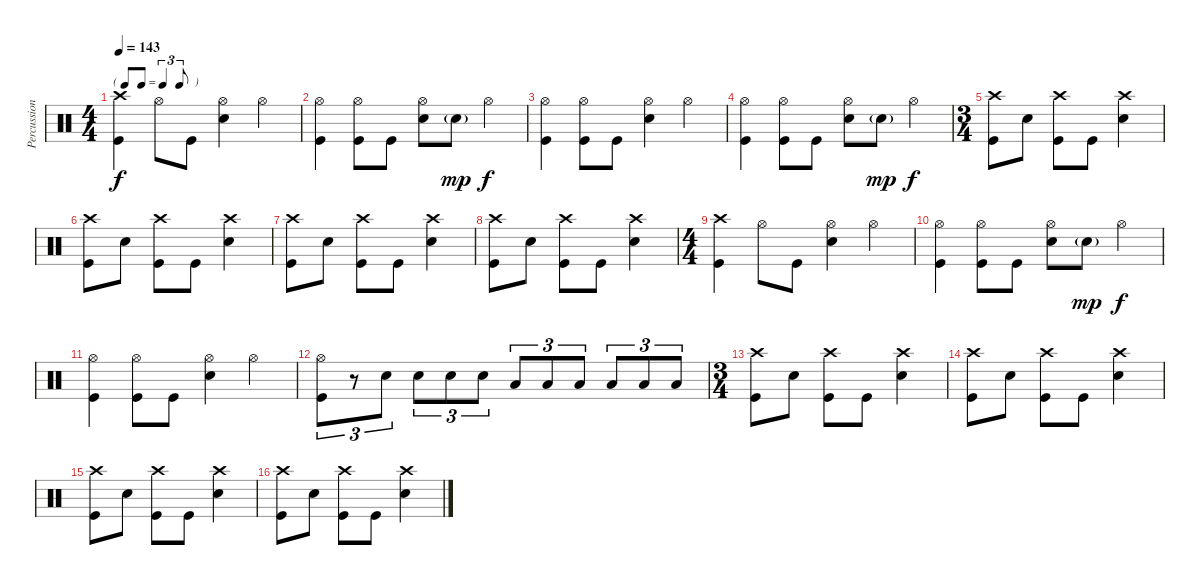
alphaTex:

\track ("Percussion" "Percussion") {instrument percussion}
\staff {score}
\articulation defaults
\ts (4 4)
\tf triplet8th
\tempo 143
\clef neutral
\ks c
("Crash high (hit)" "Kick (hit)").4{dy f} "Hi-Hat (open)".8 "Kick (hit)".8 ("Hi-Hat (open)" "Electric Snare (hit)").4 "Hi-Hat (open)".4 |
("Hi-Hat (open)" "Kick (hit)").4 ("Hi-Hat (open)" "Kick (hit)").8 "Kick (hit)".8 ("Hi-Hat (open)" "Electric Snare (hit)").8 "Electric Snare (hit)"{g}.8{dy mp} "Hi-Hat (open)".4{dy f} |
("Hi-Hat (open)" "Kick (hit)").4 ("Hi-Hat (open)" "Kick (hit)").8 "Kick (hit)".8 ("Hi-Hat (open)" "Electric Snare (hit)").4 "Hi-Hat (open)".4 |
("Hi-Hat (open)" "Kick (hit)").4 ("Hi-Hat (open)" "Kick (hit)").8 "Kick (hit)".8 ("Hi-Hat (open)" "Electric Snare (hit)").8 "Electric Snare (hit)"{g}.8{dy mp} "Hi-Hat (open)".4{dy f} |
\ts (3 4)
("Crash high (hit)" "Kick (hit)").8 "Electric Snare (hit)".8 ("Crash high (hit)" "Kick (hit)").8 "Kick (hit)".8 ("Crash high (hit)" "Electric Snare (hit)").4 |
("Crash high (hit)" "Kick (hit)").8 "Electric Snare (hit)".8 ("Crash high (hit)" "Kick (hit)").8 "Kick (hit)".8 ("Crash high (hit)" "Electric Snare (hit)").4 |
("Crash high (hit)" "Kick (hit)").8 "Electric Snare (hit)".8 ("Crash high (hit)" "Kick (hit)").8 "Kick (hit)".8 ("Crash high (hit)" "Electric Snare (hit)").4 |
("Crash high (hit)" "Kick (hit)").8 "Electric Snare (hit)".8 ("Crash high (hit)" "Kick (hit)").8 "Kick (hit)".8 ("Crash high (hit)" "Electric Snare (hit)").4 |
\ts (4 4)
("Crash high (hit)" "Kick (hit)").4 "Hi-Hat (open)".8 "Kick (hit)".8 ("Hi-Hat (open)" "Electric Snare (hit)").4 "Hi-Hat (open)".4 |
("Hi-Hat (open)" "Kick (hit)").4 ("Hi-Hat (open)" "Kick (hit)").8 "Kick (hit)".8 ("Hi-Hat (open)" "Electric Snare (hit)").8 "Electric Snare (hit)"{g}.8{dy mp} "Hi-Hat (open)".4{dy f} |
("Hi-Hat (open)" "Kick (hit)").4 ("Hi-Hat (open)" "Kick (hit)").8 "Kick (hit)".8 ("Hi-Hat (open)" "Electric Snare (hit)").4 "Hi-Hat (open)".4 |
("Hi-Hat (open)" "Kick (hit)").8{tu (3 2)} r.8{tu (3 2)} "Electric Snare (hit)".8{tu (3 2)} "Electric Snare (hit)".8{tu (3 2)} "Electric Snare (hit)".8{tu (3 2)} "Electric Snare (hit)".8{tu (3 2)} "Low Tom (hit)".8{tu (3 2)} "Low Tom (hit)".8{tu (3 2)} "Low Tom (hit)".8{tu (3 2)} "Low Floor Tom (hit)".8{tu (3 2)} "Low Floor Tom (hit)".8{tu (3 2)} "Low Floor Tom (hit)".8{tu (3 2)} |
\ts (3 4)
("Crash high (hit)" "Kick (hit)").8 "Electric Snare (hit)".8 ("Crash high (hit)" "Kick (hit)").8 "Kick (hit)".8 ("Crash high (hit)" "Electric Snare (hit)").4 |
("Crash high (hit)" "Kick (hit)").8 "Electric Snare (hit)".8 ("Crash high (hit)" "Kick (hit)").8 "Kick (hit)".8 ("Crash high (hit)" "Electric Snare (hit)").4 |
("Crash high (hit)" "Kick (hit)").8 "Electric Snare (hit)".8 ("Crash high (hit)" "Kick (hit)").8 "Kick (hit)".8 ("Crash high (hit)" "Electric Snare (hit)").4 |
("Crash high (hit)" "Kick (hit)").8 "Electric Snare (hit)".8 ("Crash high (hit)" "Kick (hit)").8 "Kick (hit)".8 ("Crash high (hit)" "Electric Snare (hit)").4
